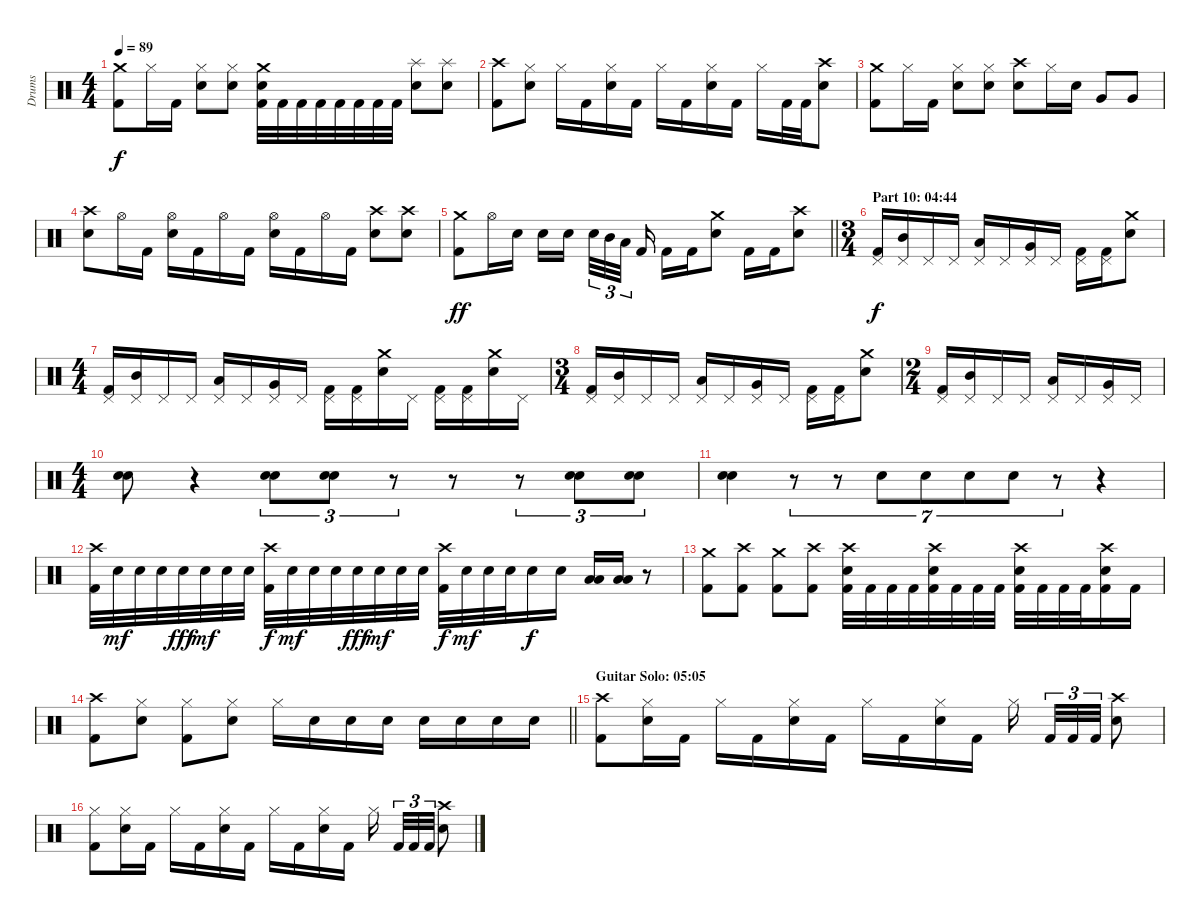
\track ("Drums" "Drums") {instrument percussion}
\staff {score}
\articulation defaults
\ts (4 4)
\tempo 89
\clef neutral
\ks c
("Crash medium (hit)" "Kick (hit) 2").8{dy f} "Hi-Hat (closed)".16 "Kick (hit) 2".16 ("Hi-Hat (closed)" "Electric Snare (hit)").8 ("Hi-Hat (closed)" "Electric Snare (hit)").8 ("Crash medium (hit)" "Electric Snare (hit)" "Kick (hit) 2").32 "Kick (hit) 2".32 "Kick (hit) 2".32 "Kick (hit) 2".32 "Kick (hit) 2".32 "Kick (hit) 2".32 "Kick (hit) 2".32 "Kick (hit) 2".32 ("Splash (hit)" "Electric Snare (hit)").8 ("Splash (hit)" "Electric Snare (hit)").8 |
("Crash high (hit)" "Kick (hit) 2").8 ("Hi-Hat (closed)" "Electric Snare (hit)").8 "Hi-Hat (closed)".16 "Kick (hit) 2".16 ("Hi-Hat (closed)" "Electric Snare (hit)").16 "Kick (hit) 2".16 "Hi-Hat (closed)".16 "Kick (hit) 2".16 ("Hi-Hat (closed)" "Electric Snare (hit)").16 "Kick (hit) 2".16 "Hi-Hat (closed)".16 "Kick (hit) 2".32 "Kick (hit) 2".32 ("Crash high (hit)" "Electric Snare (hit)").8 |
("Crash medium (hit)" "Kick (hit) 2").8 "Hi-Hat (closed)".16 "Kick (hit) 2".16 ("Hi-Hat (closed)" "Electric Snare (hit)").8 ("Hi-Hat (closed)" "Electric Snare (hit)").8 ("Crash high (hit)" "Electric Snare (hit)").8 "Hi-Hat (closed)".16 "Electric Snare (hit)".16 "Very Low Tom (hit)".8 "Very Low Tom (hit)".8 |
("Crash high (hit)" "Electric Snare (hit)").8 "Hi-Hat (open)".16 "Kick (hit) 2".16 ("Hi-Hat (open)" "Electric Snare (hit)").16 "Kick (hit) 2".16 "Hi-Hat (open)".16 "Kick (hit) 2".16 ("Hi-Hat (open)" "Electric Snare (hit)").16 "Kick (hit) 2".16 "Hi-Hat (open)".16 "Kick (hit) 2".16 ("Crash high (hit)" "Electric Snare (hit)").8 ("Crash high (hit)" "Electric Snare (hit)").8 |
\barLineRight lightlight
("Crash medium (hit)" "Kick (hit) 2").8{dy ff} "Hi-Hat (open)".16 "Electric Snare (hit)".16 "Electric Snare (hit)".16 "Electric Snare (hit)".16{beam splitsecondary} "Electric Snare (hit)".32{tu (3 2)} "Mid Tom (hit)".32{tu (3 2)} "Low Tom (hit)".32{tu (3 2) beam splitsecondary} "Kick (hit) 2".16 "Kick (hit) 2".16 "Kick (hit) 2".16 ("Crash medium (hit)" "Electric Snare (hit)").8 "Kick (hit) 2".16 "Kick (hit) 2".16 ("Crash high (hit)" "Electric Snare (hit)").8 |
\ts (3 4)
\section ("" "Part 10: 04:44")
("Pedal Hi-Hat (hit)" "Kick (hit) 2").16{dy f} ("Pedal Hi-Hat (hit)" "Mid Tom (hit)").16 "Pedal Hi-Hat (hit)".16 "Pedal Hi-Hat (hit)".16 ("Pedal Hi-Hat (hit)" "Low Tom (hit)").16 "Pedal Hi-Hat (hit)".16 ("Pedal Hi-Hat (hit)" "Very Low Tom (hit)").16 "Pedal Hi-Hat (hit)".16 ("Pedal Hi-Hat (hit)" "Kick (hit) 2").16 ("Pedal Hi-Hat (hit)" "Kick (hit) 2").16 ("Crash medium (hit)" "Electric Snare (hit)").8 |
\ts (4 4)
("Pedal Hi-Hat (hit)" "Kick (hit) 2").16 ("Pedal Hi-Hat (hit)" "Mid Tom (hit)").16 "Pedal Hi-Hat (hit)".16 "Pedal Hi-Hat (hit)".16 ("Pedal Hi-Hat (hit)" "Low Tom (hit)").16 "Pedal Hi-Hat (hit)".16 ("Pedal Hi-Hat (hit)" "Very Low Tom (hit)").16 "Pedal Hi-Hat (hit)".16 ("Pedal Hi-Hat (hit)" "Kick (hit) 2").16 ("Pedal Hi-Hat (hit)" "Kick (hit) 2").16 ("Crash medium (hit)" "Electric Snare (hit)").16 "Pedal Hi-Hat (hit)".16 ("Pedal Hi-Hat (hit)" "Kick (hit) 2").16 ("Pedal Hi-Hat (hit)" "Kick (hit) 2").16 ("Crash medium (hit)" "Electric Snare (hit)").16 "Pedal Hi-Hat (hit)".16 |
\ts (3 4)
("Pedal Hi-Hat (hit)" "Kick (hit) 2").16 ("Pedal Hi-Hat (hit)" "Mid Tom (hit)").16 "Pedal Hi-Hat (hit)".16 "Pedal Hi-Hat (hit)".16 ("Pedal Hi-Hat (hit)" "Low Tom (hit)").16 "Pedal Hi-Hat (hit)".16 ("Pedal Hi-Hat (hit)" "Very Low Tom (hit)").16 "Pedal Hi-Hat (hit)".16 ("Pedal Hi-Hat (hit)" "Kick (hit) 2").16 ("Pedal Hi-Hat (hit)" "Kick (hit) 2").16 ("Crash medium (hit)" "Electric Snare (hit)").8 |
\ts (2 4)
("Pedal Hi-Hat (hit)" "Kick (hit) 2").16 ("Pedal Hi-Hat (hit)" "Mid Tom (hit)").16 "Pedal Hi-Hat (hit)".16 "Pedal Hi-Hat (hit)".16 ("Pedal Hi-Hat (hit)" "Low Tom (hit)").16 "Pedal Hi-Hat (hit)".16 ("Pedal Hi-Hat (hit)" "Very Low Tom (hit)").16 "Pedal Hi-Hat (hit)".16 |
\ts (4 4)
("Electric Snare (hit)" "Electric Snare (hit)").8{bd 30} r.4 ("Electric Snare (hit)" "Electric Snare (hit)").8{tu (3 2)} ("Electric Snare (hit)" "Electric Snare (hit)").8{tu (3 2)} r.8{tu (3 2)} r.8 r.8{tu (3 2)} ("Electric Snare (hit)" "Electric Snare (hit)").8{tu (3 2)} ("Electric Snare (hit)" "Electric Snare (hit)").8{tu (3 2)} |
("Electric Snare (hit)" "Electric Snare (hit)").4 r.8{tu (7 4)} r.8{tu (7 4)} "Electric Snare (hit)".8{tu (7 4)} "Electric Snare (hit)".8{tu (7 4)} "Electric Snare (hit)".8{tu (7 4)} "Electric Snare (hit)".8{tu (7 4)} r.8{tu (7 4)} r.4 |
("Crash high (hit)" "Kick (hit) 2").32 "Electric Snare (hit)".32{dy mf} "Electric Snare (hit)".32 "Electric Snare (hit)".32 "Electric Snare (hit)".32{dy fff} "Electric Snare (hit)".32{dy mf} "Electric Snare (hit)".32 "Electric Snare (hit)".32 ("Crash high (hit)" "Kick (hit) 2").32{dy f} "Electric Snare (hit)".32{dy mf} "Electric Snare (hit)".32 "Electric Snare (hit)".32 "Electric Snare (hit)".32{dy fff} "Electric Snare (hit)".32{dy mf} "Electric Snare (hit)".32 "Electric Snare (hit)".32 ("Crash high (hit)" "Kick (hit) 2").32{dy f} "Electric Snare (hit)".32{dy mf} "Electric Snare (hit)".32 "Electric Snare (hit)".32 "Electric Snare (hit)".16{dy f} "Electric Snare (hit)".16 ("Low Tom (hit)" "Low Floor Tom (hit)").16 ("Low Tom (hit)" "Low Floor Tom (hit)").16 r.8 |
("Crash medium (hit)" "Kick (hit) 2").8 ("Crash high (hit)" "Kick (hit) 2").8 ("Crash medium (hit)" "Kick (hit) 2").8 ("Crash high (hit)" "Kick (hit) 2").8 ("Crash high (hit)" "Electric Snare (hit)" "Kick (hit) 2").32 "Kick (hit) 2".32 "Kick (hit) 2".32 "Kick (hit) 2".32 ("Crash high (hit)" "Electric Snare (hit)" "Kick (hit) 2").32 "Kick (hit) 2".32 "Kick (hit) 2".32 "Kick (hit) 2".32 ("Crash high (hit)" "Electric Snare (hit)" "Kick (hit) 2").32 "Kick (hit) 2".32 "Kick (hit) 2".32 "Kick (hit) 2".32 ("Crash high (hit)" "Electric Snare (hit)" "Kick (hit) 2").16 "Kick (hit) 2".16 |
\barLineRight lightlight
("Crash high (hit)" "Kick (hit) 2").8 ("Hi-Hat (closed)" "Electric Snare (hit)").8 ("Hi-Hat (closed)" "Kick (hit) 2").8 ("Hi-Hat (closed)" "Electric Snare (hit)").8 "Hi-Hat (closed)".16 "Electric Snare (hit)".16 "Electric Snare (hit)".16 "Electric Snare (hit)".16 "Electric Snare (hit)".16 "Electric Snare (hit)".16 "Electric Snare (hit)".16 "Electric Snare (hit)".16 |
\section ("" "Guitar Solo: 05:05")
("Crash high (hit)" "Kick (hit) 2").8 ("Hi-Hat (closed)" "Electric Snare (hit)").16 "Kick (hit) 2".16 "Hi-Hat (closed)".16 "Kick (hit) 2".16 ("Hi-Hat (closed)" "Electric Snare (hit)").16 "Kick (hit) 2".16 "Hi-Hat (closed)".16 "Kick (hit) 2".16 ("Hi-Hat (closed)" "Electric Snare (hit)").16 "Kick (hit) 2".16 "Hi-Hat (closed)".16{beam splitsecondary} "Kick (hit) 2".32{tu (3 2)} "Kick (hit) 2".32{tu (3 2)} "Kick (hit) 2".32{tu (3 2)} ("Crash high (hit)" "Electric Snare (hit)").8 |
("Hi-Hat (closed)" "Kick (hit) 2").8 ("Hi-Hat (closed)" "Electric Snare (hit)").16 "Kick (hit) 2".16 "Hi-Hat (closed)".16 "Kick (hit) 2".16 ("Hi-Hat (closed)" "Electric Snare (hit)").16 "Kick (hit) 2".16 "Hi-Hat (closed)".16 "Kick (hit) 2".16 ("Hi-Hat (closed)" "Electric Snare (hit)").16 "Kick (hit) 2".16 "Hi-Hat (closed)".16{beam splitsecondary} "Kick (hit) 2".32{tu (3 2)} "Kick (hit) 2".32{tu (3 2)} "Kick (hit) 2".32{tu (3 2)} ("Crash high (hit)" "Electric Snare (hit)").8
